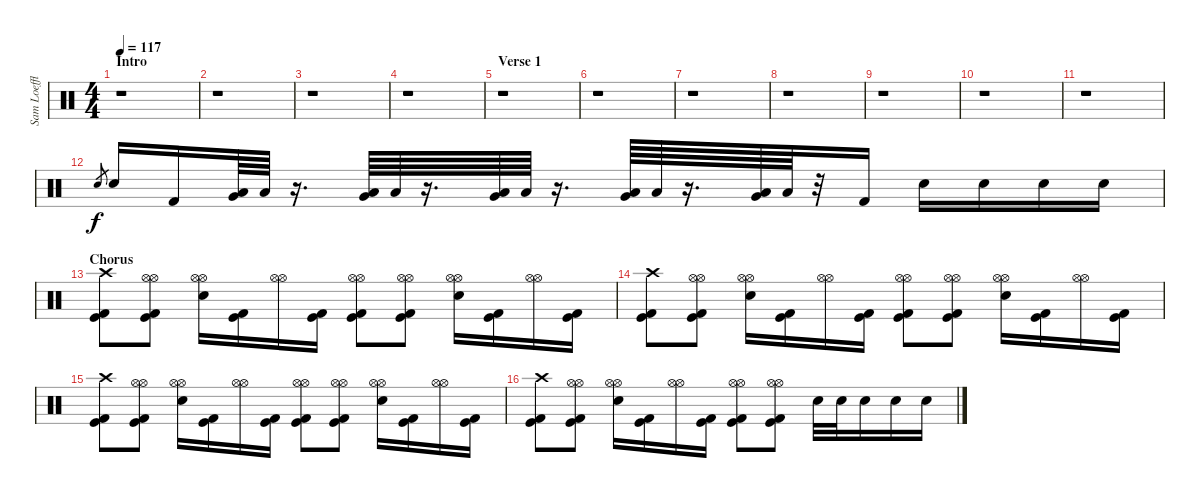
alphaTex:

\track ("Sam Loeffler - Drums" "Sam Loeffl") {instrument percussion}
\staff {score}
\articulation defaults
\ts (4 4)
\section ("" "Intro")
\tempo 117
\clef neutral
\ks c
r.1{dy f} |
r.1 |
r.1 |
r.1 |
\section ("" "Verse 1")
r.1 |
r.1 |
r.1 |
r.1 |
r.1 |
r.1 |
r.1 |
"Electric Snare (hit)".8{gr} "Electric Snare (hit)".16 "Kick (hit) 2".16 ("Very Low Tom (hit)" "Low Floor Tom (hit)").64 "Low Floor Tom (hit)".64 r.16{d} ("Very Low Tom (hit)" "Low Floor Tom (hit)").64 "Low Floor Tom (hit)".64 r.16{d} ("Very Low Tom (hit)" "Low Floor Tom (hit)").64 "Low Floor Tom (hit)".64 r.16{d} ("Very Low Tom (hit)" "Low Floor Tom (hit)").64 "Low Floor Tom (hit)".64 r.16{d} ("Very Low Tom (hit)" "Low Floor Tom (hit)").64 "Low Floor Tom (hit)".64 r.32 "Kick (hit) 2".16 "Electric Snare (hit)".16 "Electric Snare (hit)".16 "Electric Snare (hit)".16 "Electric Snare (hit)".16 |
\section ("" "Chorus")
("Crash high (hit)" "Kick (hit)" "Kick (hit) 2").8 ("Hi-Hat (open)" "Hi-Hat (open)" "Kick (hit)" "Kick (hit) 2").8 ("Hi-Hat (open)" "Hi-Hat (open)" "Electric Snare (hit)").16 ("Kick (hit)" "Kick (hit) 2").16 ("Hi-Hat (open)" "Hi-Hat (open)").16 ("Kick (hit)" "Kick (hit) 2").16 ("Hi-Hat (open)" "Hi-Hat (open)" "Kick (hit)" "Kick (hit) 2").8 ("Hi-Hat (open)" "Hi-Hat (open)" "Kick (hit)" "Kick (hit) 2").8 ("Hi-Hat (open)" "Hi-Hat (open)" "Electric Snare (hit)").16 ("Kick (hit)" "Kick (hit) 2").16 ("Hi-Hat (open)" "Hi-Hat (open)").16 ("Kick (hit)" "Kick (hit) 2").16 |
("Crash high (hit)" "Kick (hit)" "Kick (hit) 2").8 ("Hi-Hat (open)" "Hi-Hat (open)" "Kick (hit)" "Kick (hit) 2").8 ("Hi-Hat (open)" "Hi-Hat (open)" "Electric Snare (hit)").16 ("Kick (hit)" "Kick (hit) 2").16 ("Hi-Hat (open)" "Hi-Hat (open)").16 ("Kick (hit)" "Kick (hit) 2").16 ("Hi-Hat (open)" "Hi-Hat (open)" "Kick (hit)" "Kick (hit) 2").8 ("Hi-Hat (open)" "Hi-Hat (open)" "Kick (hit)" "Kick (hit) 2").8 ("Hi-Hat (open)" "Hi-Hat (open)" "Electric Snare (hit)").16 ("Kick (hit)" "Kick (hit) 2").16 ("Hi-Hat (open)" "Hi-Hat (open)").16 ("Kick (hit)" "Kick (hit) 2").16 |
("Crash high (hit)" "Kick (hit)" "Kick (hit) 2").8 ("Hi-Hat (open)" "Hi-Hat (open)" "Kick (hit)" "Kick (hit) 2").8 ("Hi-Hat (open)" "Hi-Hat (open)" "Electric Snare (hit)").16 ("Kick (hit)" "Kick (hit) 2").16 ("Hi-Hat (open)" "Hi-Hat (open)").16 ("Kick (hit)" "Kick (hit) 2").16 ("Hi-Hat (open)" "Hi-Hat (open)" "Kick (hit)" "Kick (hit) 2").8 ("Hi-Hat (open)" "Hi-Hat (open)" "Kick (hit)" "Kick (hit) 2").8 ("Hi-Hat (open)" "Hi-Hat (open)" "Electric Snare (hit)").16 ("Kick (hit)" "Kick (hit) 2").16 ("Hi-Hat (open)" "Hi-Hat (open)").16 ("Kick (hit)" "Kick (hit) 2").16 |
("Crash high (hit)" "Kick (hit)" "Kick (hit) 2").8 ("Hi-Hat (open)" "Hi-Hat (open)" "Kick (hit)" "Kick (hit) 2").8 ("Hi-Hat (open)" "Hi-Hat (open)" "Electric Snare (hit)").16 ("Kick (hit)" "Kick (hit) 2").16 ("Hi-Hat (open)" "Hi-Hat (open)").16 ("Kick (hit)" "Kick (hit) 2").16 ("Hi-Hat (open)" "Hi-Hat (open)" "Kick (hit)" "Kick (hit) 2").8 ("Hi-Hat (open)" "Hi-Hat (open)" "Kick (hit)" "Kick (hit) 2").8 "Electric Snare (hit)".32 "Electric Snare (hit)".32 "Electric Snare (hit)".16 "Electric Snare (hit)".16 "Electric Snare (hit)".16
